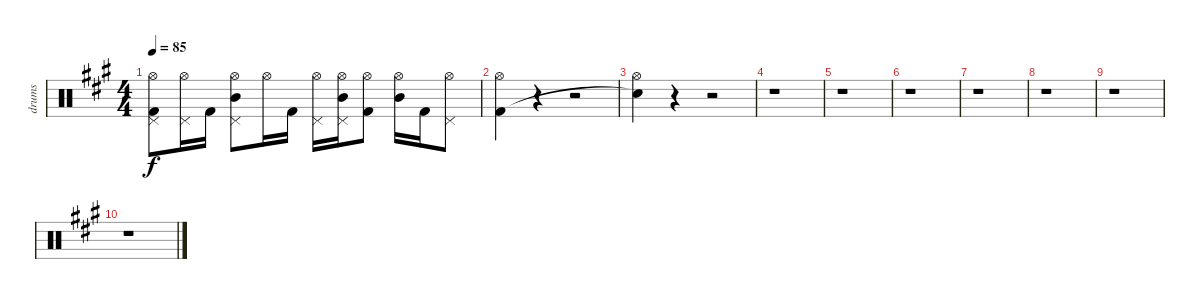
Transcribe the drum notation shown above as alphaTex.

\track ("drums" "drums") {instrument percussion}
\staff {score}
\articulation defaults
\ts (4 4)
\tempo 85
\clef neutral
\ks a
("Hi-Hat (open)" "Pedal Hi-Hat (hit)" "Kick (hit) 2").8{dy f} ("Hi-Hat (open)" "Pedal Hi-Hat (hit)").16 "Kick (hit) 2".16 ("Hi-Hat (open)" "Mid Tom (hit)" "Pedal Hi-Hat (hit)").8 "Hi-Hat (open)".16 "Kick (hit) 2".16 ("Hi-Hat (open)" "Pedal Hi-Hat (hit)").16 ("Hi-Hat (open)" "Mid Tom (hit)" "Pedal Hi-Hat (hit)").16 ("Hi-Hat (open)" "Kick (hit) 2").8 ("Hi-Hat (open)" "Mid Tom (hit)").16 "Kick (hit) 2".16 ("Hi-Hat (open)" "Pedal Hi-Hat (hit)").8 |
("Hi-Hat (open)" "Kick (hit) 2").4 r.4 r.2 |
("Hi-Hat (open)" "Snare (hit)"{t}).4 r.4 r.2 |
r.1 |
r.1 |
r.1 |
r.1 |
r.1 |
r.1 |
r.1
